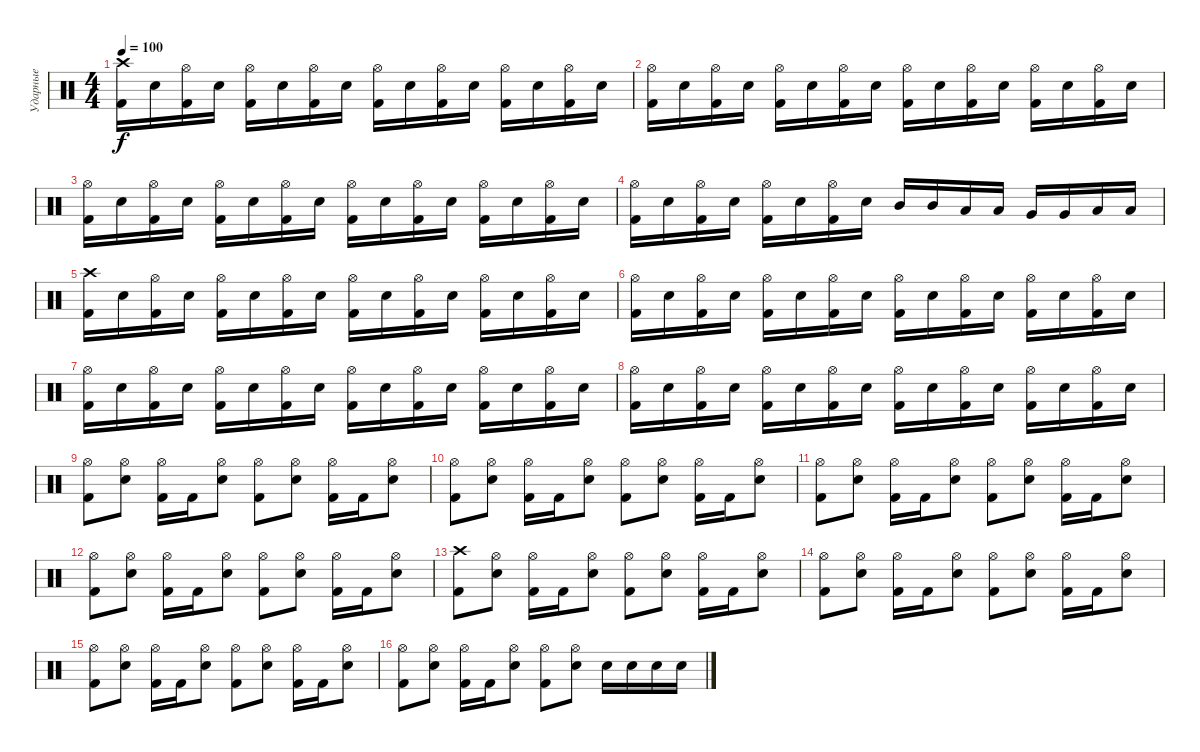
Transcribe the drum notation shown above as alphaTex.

\track ("Ударные" "Ударные") {instrument percussion}
\staff {score}
\articulation defaults
\ts (4 4)
\tempo 100
\clef neutral
\ks c
("Crash high (hit)" "Kick (hit) 2").16{dy f} "Snare (hit) 2".16 ("Hi-Hat (open)" "Kick (hit) 2").16 "Snare (hit) 2".16 ("Hi-Hat (open)" "Kick (hit) 2").16 "Snare (hit) 2".16 ("Hi-Hat (open)" "Kick (hit) 2").16 "Snare (hit) 2".16 ("Hi-Hat (open)" "Kick (hit) 2").16 "Snare (hit) 2".16 ("Hi-Hat (open)" "Kick (hit) 2").16 "Snare (hit) 2".16 ("Hi-Hat (open)" "Kick (hit) 2").16 "Snare (hit) 2".16 ("Hi-Hat (open)" "Kick (hit) 2").16 "Snare (hit) 2".16 |
("Hi-Hat (open)" "Kick (hit) 2").16 "Snare (hit) 2".16 ("Hi-Hat (open)" "Kick (hit) 2").16 "Snare (hit) 2".16 ("Hi-Hat (open)" "Kick (hit) 2").16 "Snare (hit) 2".16 ("Hi-Hat (open)" "Kick (hit) 2").16 "Snare (hit) 2".16 ("Hi-Hat (open)" "Kick (hit) 2").16 "Snare (hit) 2".16 ("Hi-Hat (open)" "Kick (hit) 2").16 "Snare (hit) 2".16 ("Hi-Hat (open)" "Kick (hit) 2").16 "Snare (hit) 2".16 ("Hi-Hat (open)" "Kick (hit) 2").16 "Snare (hit) 2".16 |
("Hi-Hat (open)" "Kick (hit) 2").16 "Snare (hit) 2".16 ("Hi-Hat (open)" "Kick (hit) 2").16 "Snare (hit) 2".16 ("Hi-Hat (open)" "Kick (hit) 2").16 "Snare (hit) 2".16 ("Hi-Hat (open)" "Kick (hit) 2").16 "Snare (hit) 2".16 ("Hi-Hat (open)" "Kick (hit) 2").16 "Snare (hit) 2".16 ("Hi-Hat (open)" "Kick (hit) 2").16 "Snare (hit) 2".16 ("Hi-Hat (open)" "Kick (hit) 2").16 "Snare (hit) 2".16 ("Hi-Hat (open)" "Kick (hit) 2").16 "Snare (hit) 2".16 |
("Hi-Hat (open)" "Kick (hit) 2").16 "Snare (hit) 2".16 ("Hi-Hat (open)" "Kick (hit) 2").16 "Snare (hit) 2".16 ("Hi-Hat (open)" "Kick (hit) 2").16 "Snare (hit) 2".16 ("Hi-Hat (open)" "Kick (hit) 2").16 "Snare (hit) 2".16 "Mid Tom (hit)".16 "Mid Tom (hit)".16 "Low Tom (hit)".16 "Low Tom (hit)".16 "Very Low Tom (hit)".16 "Very Low Tom (hit)".16 "Low Floor Tom (hit)".16 "Low Floor Tom (hit)".16 |
("Crash high (hit)" "Kick (hit) 2").16 "Snare (hit) 2".16 ("Hi-Hat (open)" "Kick (hit) 2").16 "Snare (hit) 2".16 ("Hi-Hat (open)" "Kick (hit) 2").16 "Snare (hit) 2".16 ("Hi-Hat (open)" "Kick (hit) 2").16 "Snare (hit) 2".16 ("Hi-Hat (open)" "Kick (hit) 2").16 "Snare (hit) 2".16 ("Hi-Hat (open)" "Kick (hit) 2").16 "Snare (hit) 2".16 ("Hi-Hat (open)" "Kick (hit) 2").16 "Snare (hit) 2".16 ("Hi-Hat (open)" "Kick (hit) 2").16 "Snare (hit) 2".16 |
("Hi-Hat (open)" "Kick (hit) 2").16 "Snare (hit) 2".16 ("Hi-Hat (open)" "Kick (hit) 2").16 "Snare (hit) 2".16 ("Hi-Hat (open)" "Kick (hit) 2").16 "Snare (hit) 2".16 ("Hi-Hat (open)" "Kick (hit) 2").16 "Snare (hit) 2".16 ("Hi-Hat (open)" "Kick (hit) 2").16 "Snare (hit) 2".16 ("Hi-Hat (open)" "Kick (hit) 2").16 "Snare (hit) 2".16 ("Hi-Hat (open)" "Kick (hit) 2").16 "Snare (hit) 2".16 ("Hi-Hat (open)" "Kick (hit) 2").16 "Snare (hit) 2".16 |
("Hi-Hat (open)" "Kick (hit) 2").16 "Snare (hit) 2".16 ("Hi-Hat (open)" "Kick (hit) 2").16 "Snare (hit) 2".16 ("Hi-Hat (open)" "Kick (hit) 2").16 "Snare (hit) 2".16 ("Hi-Hat (open)" "Kick (hit) 2").16 "Snare (hit) 2".16 ("Hi-Hat (open)" "Kick (hit) 2").16 "Snare (hit) 2".16 ("Hi-Hat (open)" "Kick (hit) 2").16 "Snare (hit) 2".16 ("Hi-Hat (open)" "Kick (hit) 2").16 "Snare (hit) 2".16 ("Hi-Hat (open)" "Kick (hit) 2").16 "Snare (hit) 2".16 |
("Hi-Hat (open)" "Kick (hit) 2").16 "Snare (hit) 2".16 ("Hi-Hat (open)" "Kick (hit) 2").16 "Snare (hit) 2".16 ("Hi-Hat (open)" "Kick (hit) 2").16 "Snare (hit) 2".16 ("Hi-Hat (open)" "Kick (hit) 2").16 "Snare (hit) 2".16 ("Hi-Hat (open)" "Kick (hit) 2").16 "Snare (hit) 2".16 ("Hi-Hat (open)" "Kick (hit) 2").16 "Snare (hit) 2".16 ("Hi-Hat (open)" "Kick (hit) 2").16 "Snare (hit) 2".16 ("Hi-Hat (open)" "Kick (hit) 2").16 "Snare (hit) 2".16 |
("Hi-Hat (open)" "Kick (hit) 2").8 ("Hi-Hat (open)" "Snare (hit) 2").8 ("Hi-Hat (open)" "Kick (hit) 2").16 "Kick (hit) 2".16 ("Hi-Hat (open)" "Snare (hit) 2").8 ("Hi-Hat (open)" "Kick (hit) 2").8 ("Hi-Hat (open)" "Snare (hit) 2").8 ("Hi-Hat (open)" "Kick (hit) 2").16 "Kick (hit) 2".16 ("Hi-Hat (open)" "Snare (hit) 2").8 |
("Hi-Hat (open)" "Kick (hit) 2").8 ("Hi-Hat (open)" "Snare (hit) 2").8 ("Hi-Hat (open)" "Kick (hit) 2").16 "Kick (hit) 2".16 ("Hi-Hat (open)" "Snare (hit) 2").8 ("Hi-Hat (open)" "Kick (hit) 2").8 ("Hi-Hat (open)" "Snare (hit) 2").8 ("Hi-Hat (open)" "Kick (hit) 2").16 "Kick (hit) 2".16 ("Hi-Hat (open)" "Snare (hit) 2").8 |
("Hi-Hat (open)" "Kick (hit) 2").8 ("Hi-Hat (open)" "Snare (hit) 2").8 ("Hi-Hat (open)" "Kick (hit) 2").16 "Kick (hit) 2".16 ("Hi-Hat (open)" "Snare (hit) 2").8 ("Hi-Hat (open)" "Kick (hit) 2").8 ("Hi-Hat (open)" "Snare (hit) 2").8 ("Hi-Hat (open)" "Kick (hit) 2").16 "Kick (hit) 2".16 ("Hi-Hat (open)" "Snare (hit) 2").8 |
("Hi-Hat (open)" "Kick (hit) 2").8 ("Hi-Hat (open)" "Snare (hit) 2").8 ("Hi-Hat (open)" "Kick (hit) 2").16 "Kick (hit) 2".16 ("Hi-Hat (open)" "Snare (hit) 2").8 ("Hi-Hat (open)" "Kick (hit) 2").8 ("Hi-Hat (open)" "Snare (hit) 2").8 ("Hi-Hat (open)" "Kick (hit) 2").16 "Kick (hit) 2".16 ("Hi-Hat (open)" "Snare (hit) 2").8 |
("Crash high (hit)" "Kick (hit) 2").8 ("Hi-Hat (open)" "Snare (hit) 2").8 ("Hi-Hat (open)" "Kick (hit) 2").16 "Kick (hit) 2".16 ("Hi-Hat (open)" "Snare (hit) 2").8 ("Hi-Hat (open)" "Kick (hit) 2").8 ("Hi-Hat (open)" "Snare (hit) 2").8 ("Hi-Hat (open)" "Kick (hit) 2").16 "Kick (hit) 2".16 ("Hi-Hat (open)" "Snare (hit) 2").8 |
("Hi-Hat (open)" "Kick (hit) 2").8 ("Hi-Hat (open)" "Snare (hit) 2").8 ("Hi-Hat (open)" "Kick (hit) 2").16 "Kick (hit) 2".16 ("Hi-Hat (open)" "Snare (hit) 2").8 ("Hi-Hat (open)" "Kick (hit) 2").8 ("Hi-Hat (open)" "Snare (hit) 2").8 ("Hi-Hat (open)" "Kick (hit) 2").16 "Kick (hit) 2".16 ("Hi-Hat (open)" "Snare (hit) 2").8 |
("Hi-Hat (open)" "Kick (hit) 2").8 ("Hi-Hat (open)" "Snare (hit) 2").8 ("Hi-Hat (open)" "Kick (hit) 2").16 "Kick (hit) 2".16 ("Hi-Hat (open)" "Snare (hit) 2").8 ("Hi-Hat (open)" "Kick (hit) 2").8 ("Hi-Hat (open)" "Snare (hit) 2").8 ("Hi-Hat (open)" "Kick (hit) 2").16 "Kick (hit) 2".16 ("Hi-Hat (open)" "Snare (hit) 2").8 |
("Hi-Hat (open)" "Kick (hit) 2").8 ("Hi-Hat (open)" "Snare (hit) 2").8 ("Hi-Hat (open)" "Kick (hit) 2").16 "Kick (hit) 2".16 ("Hi-Hat (open)" "Snare (hit) 2").8 ("Hi-Hat (open)" "Kick (hit) 2").8 ("Hi-Hat (open)" "Snare (hit) 2").8 "Snare (hit) 2".16 "Snare (hit) 2".16 "Snare (hit) 2".16 "Snare (hit) 2".16
